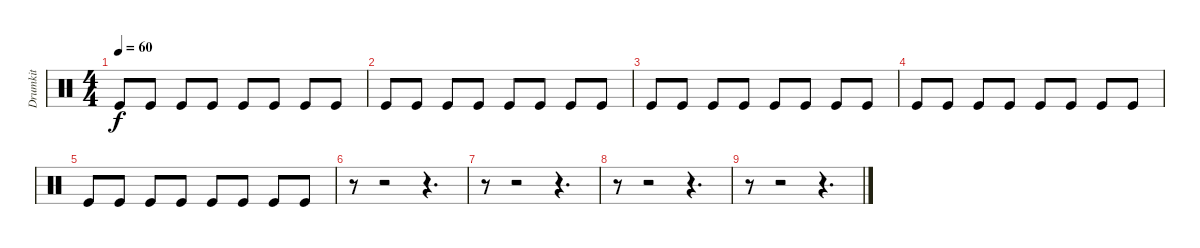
\track ("Drumkit" "Drumkit") {instrument percussion}
\staff {score}
\articulation defaults
\ts (4 4)
\tempo 60
\clef neutral
\ks c "Kick (hit)".8{dy f} "Kick (hit)".8 "Kick (hit)".8 "Kick (hit)".8 "Kick (hit)".8 "Kick (hit)".8 "Kick (hit)".8 "Kick (hit)".8
|
"Kick (hit)".8 "Kick (hit)".8 "Kick (hit)".8 "Kick (hit)".8 "Kick (hit)".8 "Kick (hit)".8 "Kick (hit)".8 "Kick (hit)".8 |
"Kick (hit)".8 "Kick (hit)".8 "Kick (hit)".8 "Kick (hit)".8 "Kick (hit)".8 "Kick (hit)".8 "Kick (hit)".8 "Kick (hit)".8 |
"Kick (hit)".8 "Kick (hit)".8 "Kick (hit)".8 "Kick (hit)".8 "Kick (hit)".8 "Kick (hit)".8 "Kick (hit)".8 "Kick (hit)".8 |
"Kick (hit)".8 "Kick (hit)".8 "Kick (hit)".8 "Kick (hit)".8 "Kick (hit)".8 "Kick (hit)".8 "Kick (hit)".8 "Kick (hit)".8 |
r.8 r.2 r.4{d} |
r.8 r.2 r.4{d} |
r.8 r.2 r.4{d} |
r.8 r.2 r.4{d}
